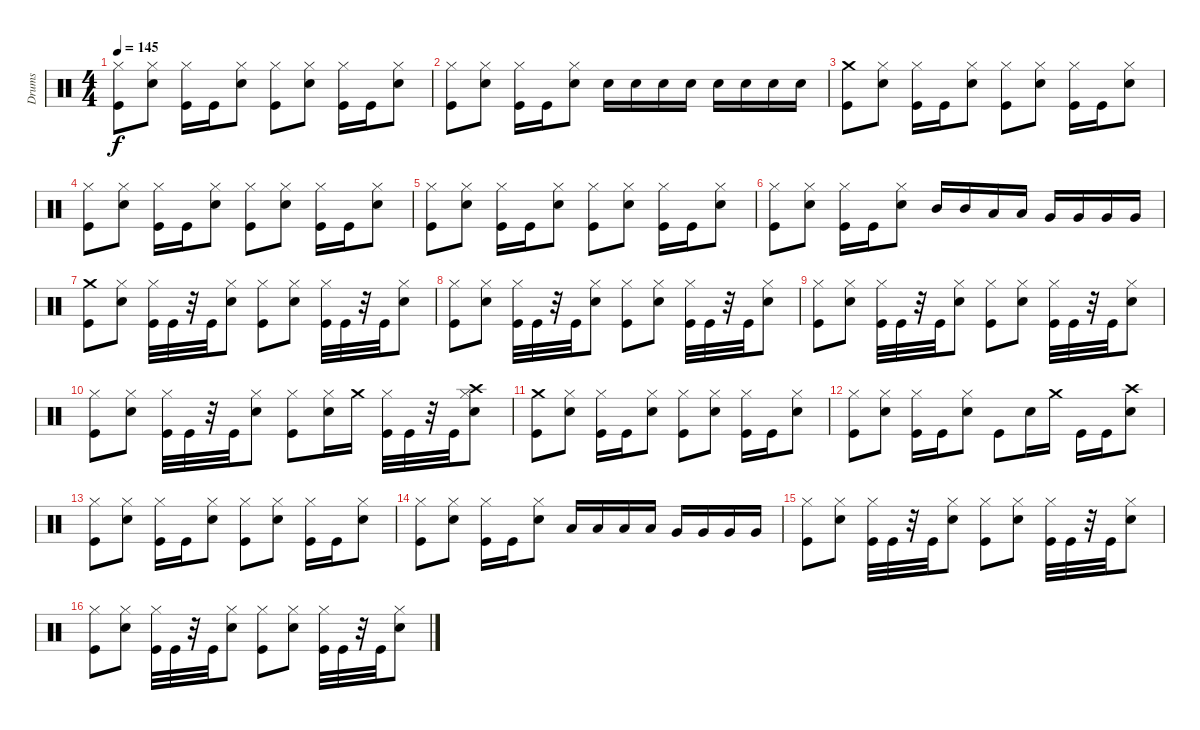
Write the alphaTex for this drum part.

\track ("Drums" "Drums") {instrument percussion}
\staff {score}
\articulation defaults
\ts (4 4)
\tempo 145
\clef neutral
\ks c
("Hi-Hat (closed)" "Kick (hit)").8{dy f} ("Hi-Hat (closed)" "Snare (hit) 2").8 ("Hi-Hat (closed)" "Kick (hit)").16 "Kick (hit)".16 ("Hi-Hat (closed)" "Snare (hit) 2").8 ("Hi-Hat (closed)" "Kick (hit)").8 ("Hi-Hat (closed)" "Snare (hit) 2").8 ("Hi-Hat (closed)" "Kick (hit)").16 "Kick (hit)".16 ("Hi-Hat (closed)" "Snare (hit) 2").8 |
("Hi-Hat (closed)" "Kick (hit)").8 ("Hi-Hat (closed)" "Snare (hit) 2").8 ("Hi-Hat (closed)" "Kick (hit)").16 "Kick (hit)".16 ("Hi-Hat (closed)" "Snare (hit) 2").8 "Snare (hit) 2".16 "Snare (hit) 2".16 "Snare (hit) 2".16 "Snare (hit) 2".16 "Snare (hit) 2".16 "Snare (hit) 2".16 "Snare (hit) 2".16 "Snare (hit) 2".16 |
("Crash medium (hit)" "Kick (hit)").8 ("Hi-Hat (closed)" "Snare (hit) 2").8 ("Hi-Hat (closed)" "Kick (hit)").16 "Kick (hit)".16 ("Hi-Hat (closed)" "Snare (hit) 2").8 ("Hi-Hat (closed)" "Kick (hit)").8 ("Hi-Hat (closed)" "Snare (hit) 2").8 ("Hi-Hat (closed)" "Kick (hit)").16 "Kick (hit)".16 ("Hi-Hat (closed)" "Snare (hit) 2").8 |
("Hi-Hat (closed)" "Kick (hit)").8 ("Hi-Hat (closed)" "Snare (hit) 2").8 ("Hi-Hat (closed)" "Kick (hit)").16 "Kick (hit)".16 ("Hi-Hat (closed)" "Snare (hit) 2").8 ("Hi-Hat (closed)" "Kick (hit)").8 ("Hi-Hat (closed)" "Snare (hit) 2").8 ("Hi-Hat (closed)" "Kick (hit)").16 "Kick (hit)".16 ("Hi-Hat (closed)" "Snare (hit) 2").8 |
("Hi-Hat (closed)" "Kick (hit)").8 ("Hi-Hat (closed)" "Snare (hit) 2").8 ("Hi-Hat (closed)" "Kick (hit)").16 "Kick (hit)".16 ("Hi-Hat (closed)" "Snare (hit) 2").8 ("Hi-Hat (closed)" "Kick (hit)").8 ("Hi-Hat (closed)" "Snare (hit) 2").8 ("Hi-Hat (closed)" "Kick (hit)").16 "Kick (hit)".16 ("Hi-Hat (closed)" "Snare (hit) 2").8 |
("Hi-Hat (closed)" "Kick (hit)").8 ("Hi-Hat (closed)" "Snare (hit) 2").8 ("Hi-Hat (closed)" "Kick (hit)").16 "Kick (hit)".16 ("Hi-Hat (closed)" "Snare (hit) 2").8 "Mid Tom (hit)".16 "Mid Tom (hit)".16 "Low Tom (hit)".16 "Low Tom (hit)".16 "Very Low Tom (hit)".16 "Very Low Tom (hit)".16 "Very Low Tom (hit)".16 "Very Low Tom (hit)".16 |
("Crash medium (hit)" "Kick (hit)").8 ("Hi-Hat (closed)" "Snare (hit) 2").8 ("Hi-Hat (closed)" "Kick (hit)").32 "Kick (hit)".32 r.32 "Kick (hit)".32 ("Hi-Hat (closed)" "Snare (hit) 2").8 ("Hi-Hat (closed)" "Kick (hit)").8 ("Hi-Hat (closed)" "Snare (hit) 2").8 ("Hi-Hat (closed)" "Kick (hit)").32 "Kick (hit)".32 r.32 "Kick (hit)".32 ("Hi-Hat (closed)" "Snare (hit) 2").8 |
("Hi-Hat (closed)" "Kick (hit)").8 ("Hi-Hat (closed)" "Snare (hit) 2").8 ("Hi-Hat (closed)" "Kick (hit)").32 "Kick (hit)".32 r.32 "Kick (hit)".32 ("Hi-Hat (closed)" "Snare (hit) 2").8 ("Hi-Hat (closed)" "Kick (hit)").8 ("Hi-Hat (closed)" "Snare (hit) 2").8 ("Hi-Hat (closed)" "Kick (hit)").32 "Kick (hit)".32 r.32 "Kick (hit)".32 ("Hi-Hat (closed)" "Snare (hit) 2").8 |
("Hi-Hat (closed)" "Kick (hit)").8 ("Hi-Hat (closed)" "Snare (hit) 2").8 ("Hi-Hat (closed)" "Kick (hit)").32 "Kick (hit)".32 r.32 "Kick (hit)".32 ("Hi-Hat (closed)" "Snare (hit) 2").8 ("Hi-Hat (closed)" "Kick (hit)").8 ("Hi-Hat (closed)" "Snare (hit) 2").8 ("Hi-Hat (closed)" "Kick (hit)").32 "Kick (hit)".32 r.32 "Kick (hit)".32 ("Hi-Hat (closed)" "Snare (hit) 2").8 |
("Hi-Hat (closed)" "Kick (hit)").8 ("Hi-Hat (closed)" "Snare (hit) 2").8 ("Hi-Hat (closed)" "Kick (hit)").32 "Kick (hit)".32 r.32 "Kick (hit)".32 ("Hi-Hat (closed)" "Snare (hit) 2").8 ("Hi-Hat (closed)" "Kick (hit)").8 ("Hi-Hat (closed)" "Snare (hit) 2").16 "Crash medium (hit)".16 ("Hi-Hat (closed)" "Kick (hit)").32 "Kick (hit)".32 r.32 "Kick (hit)".32 ("Crash high (hit)" "Hi-Hat (closed)" "Snare (hit) 2").8 |
("Crash medium (hit)" "Kick (hit)").8 ("Hi-Hat (closed)" "Snare (hit) 2").8 ("Hi-Hat (closed)" "Kick (hit)").16 "Kick (hit)".16 ("Hi-Hat (closed)" "Snare (hit) 2").8 ("Hi-Hat (closed)" "Kick (hit)").8 ("Hi-Hat (closed)" "Snare (hit) 2").8 ("Hi-Hat (closed)" "Kick (hit)").16 "Kick (hit)".16 ("Hi-Hat (closed)" "Snare (hit) 2").8 |
("Hi-Hat (closed)" "Kick (hit)").8 ("Hi-Hat (closed)" "Snare (hit) 2").8 ("Hi-Hat (closed)" "Kick (hit)").16 "Kick (hit)".16 ("Hi-Hat (closed)" "Snare (hit) 2").8 "Kick (hit)".8 "Snare (hit) 2".16 "Crash medium (hit)".16 "Kick (hit)".16 "Kick (hit)".16 ("Crash high (hit)" "Snare (hit) 2").8 |
("Hi-Hat (closed)" "Kick (hit)").8 ("Hi-Hat (closed)" "Snare (hit) 2").8 ("Hi-Hat (closed)" "Kick (hit)").16 "Kick (hit)".16 ("Hi-Hat (closed)" "Snare (hit) 2").8 ("Hi-Hat (closed)" "Kick (hit)").8 ("Hi-Hat (closed)" "Snare (hit) 2").8 ("Hi-Hat (closed)" "Kick (hit)").16 "Kick (hit)".16 ("Hi-Hat (closed)" "Snare (hit) 2").8 |
("Hi-Hat (closed)" "Kick (hit)").8 ("Hi-Hat (closed)" "Snare (hit) 2").8 ("Hi-Hat (closed)" "Kick (hit)").16 "Kick (hit)".16 ("Hi-Hat (closed)" "Snare (hit) 2").8 "Low Tom (hit)".16 "Low Tom (hit)".16 "Low Tom (hit)".16 "Low Tom (hit)".16 "Very Low Tom (hit)".16 "Very Low Tom (hit)".16 "Very Low Tom (hit)".16 "Very Low Tom (hit)".16 |
("Hi-Hat (closed)" "Kick (hit)").8 ("Hi-Hat (closed)" "Snare (hit) 2").8 ("Hi-Hat (closed)" "Kick (hit)").32 "Kick (hit)".32 r.32 "Kick (hit)".32 ("Hi-Hat (closed)" "Snare (hit) 2").8 ("Hi-Hat (closed)" "Kick (hit)").8 ("Hi-Hat (closed)" "Snare (hit) 2").8 ("Hi-Hat (closed)" "Kick (hit)").32 "Kick (hit)".32 r.32 "Kick (hit)".32 ("Hi-Hat (closed)" "Snare (hit) 2").8 |
("Hi-Hat (closed)" "Kick (hit)").8 ("Hi-Hat (closed)" "Snare (hit) 2").8 ("Hi-Hat (closed)" "Kick (hit)").32 "Kick (hit)".32 r.32 "Kick (hit)".32 ("Hi-Hat (closed)" "Snare (hit) 2").8 ("Hi-Hat (closed)" "Kick (hit)").8 ("Hi-Hat (closed)" "Snare (hit) 2").8 ("Hi-Hat (closed)" "Kick (hit)").32 "Kick (hit)".32 r.32 "Kick (hit)".32 ("Hi-Hat (closed)" "Snare (hit) 2").8
